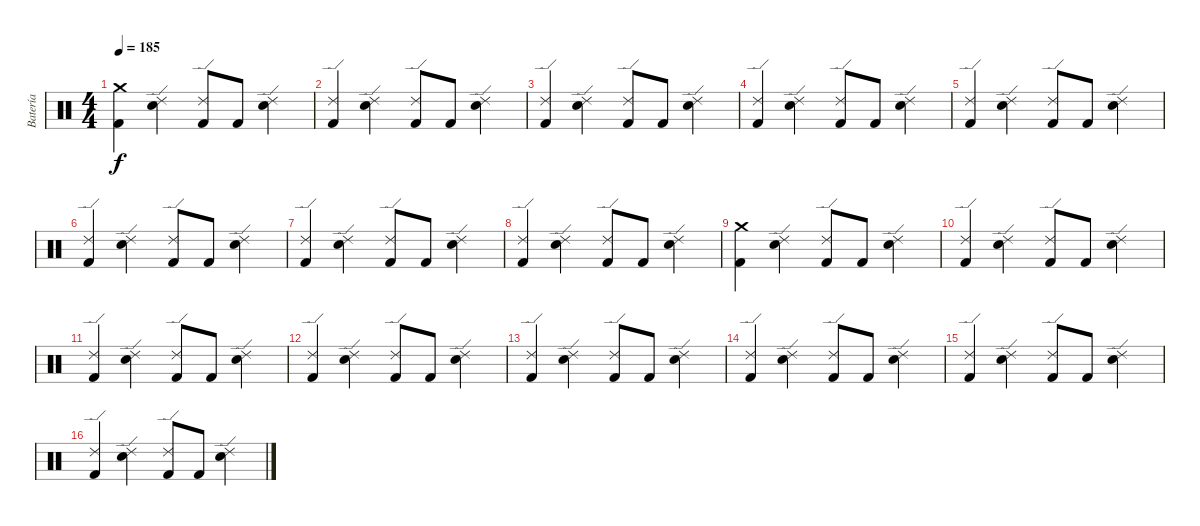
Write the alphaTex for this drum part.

\track ("Batería" "Batería") {instrument percussion}
\staff {score}
\articulation defaults
\ts (4 4)
\tempo 185
\clef neutral
\ks c
("Crash medium (hit)" "Kick (hit) 2").4{dy f} ("Ride (edge) 2" "Electric Snare (hit)").4 ("Ride (edge) 2" "Kick (hit) 2").8 "Kick (hit) 2".8 ("Ride (edge) 2" "Electric Snare (hit)").4 |
("Ride (edge) 2" "Kick (hit) 2").4 ("Ride (edge) 2" "Electric Snare (hit)").4 ("Ride (edge) 2" "Kick (hit) 2").8 "Kick (hit) 2".8 ("Ride (edge) 2" "Electric Snare (hit)").4 |
("Ride (edge) 2" "Kick (hit) 2").4 ("Ride (edge) 2" "Electric Snare (hit)").4 ("Ride (edge) 2" "Kick (hit) 2").8 "Kick (hit) 2".8 ("Ride (edge) 2" "Electric Snare (hit)").4 |
("Ride (edge) 2" "Kick (hit) 2").4 ("Ride (edge) 2" "Electric Snare (hit)").4 ("Ride (edge) 2" "Kick (hit) 2").8 "Kick (hit) 2".8 ("Ride (edge) 2" "Electric Snare (hit)").4 |
("Ride (edge) 2" "Kick (hit) 2").4 ("Ride (edge) 2" "Electric Snare (hit)").4 ("Ride (edge) 2" "Kick (hit) 2").8 "Kick (hit) 2".8 ("Ride (edge) 2" "Electric Snare (hit)").4 |
("Ride (edge) 2" "Kick (hit) 2").4 ("Ride (edge) 2" "Electric Snare (hit)").4 ("Ride (edge) 2" "Kick (hit) 2").8 "Kick (hit) 2".8 ("Ride (edge) 2" "Electric Snare (hit)").4 |
("Ride (edge) 2" "Kick (hit) 2").4 ("Ride (edge) 2" "Electric Snare (hit)").4 ("Ride (edge) 2" "Kick (hit) 2").8 "Kick (hit) 2".8 ("Ride (edge) 2" "Electric Snare (hit)").4 |
("Ride (edge) 2" "Kick (hit) 2").4 ("Ride (edge) 2" "Electric Snare (hit)").4 ("Ride (edge) 2" "Kick (hit) 2").8 "Kick (hit) 2".8 ("Ride (edge) 2" "Electric Snare (hit)").4 |
("Crash medium (hit)" "Kick (hit) 2").4 ("Ride (edge) 2" "Electric Snare (hit)").4 ("Ride (edge) 2" "Kick (hit) 2").8 "Kick (hit) 2".8 ("Ride (edge) 2" "Electric Snare (hit)").4 |
("Ride (edge) 2" "Kick (hit) 2").4 ("Ride (edge) 2" "Electric Snare (hit)").4 ("Ride (edge) 2" "Kick (hit) 2").8 "Kick (hit) 2".8 ("Ride (edge) 2" "Electric Snare (hit)").4 |
("Ride (edge) 2" "Kick (hit) 2").4 ("Ride (edge) 2" "Electric Snare (hit)").4 ("Ride (edge) 2" "Kick (hit) 2").8 "Kick (hit) 2".8 ("Ride (edge) 2" "Electric Snare (hit)").4 |
("Ride (edge) 2" "Kick (hit) 2").4 ("Ride (edge) 2" "Electric Snare (hit)").4 ("Ride (edge) 2" "Kick (hit) 2").8 "Kick (hit) 2".8 ("Ride (edge) 2" "Electric Snare (hit)").4 |
("Ride (edge) 2" "Kick (hit) 2").4 ("Ride (edge) 2" "Electric Snare (hit)").4 ("Ride (edge) 2" "Kick (hit) 2").8 "Kick (hit) 2".8 ("Ride (edge) 2" "Electric Snare (hit)").4 |
("Ride (edge) 2" "Kick (hit) 2").4 ("Ride (edge) 2" "Electric Snare (hit)").4 ("Ride (edge) 2" "Kick (hit) 2").8 "Kick (hit) 2".8 ("Ride (edge) 2" "Electric Snare (hit)").4 |
("Ride (edge) 2" "Kick (hit) 2").4 ("Ride (edge) 2" "Electric Snare (hit)").4 ("Ride (edge) 2" "Kick (hit) 2").8 "Kick (hit) 2".8 ("Ride (edge) 2" "Electric Snare (hit)").4 |
("Ride (edge) 2" "Kick (hit) 2").4 ("Ride (edge) 2" "Electric Snare (hit)").4 ("Ride (edge) 2" "Kick (hit) 2").8 "Kick (hit) 2".8 ("Ride (edge) 2" "Electric Snare (hit)").4
